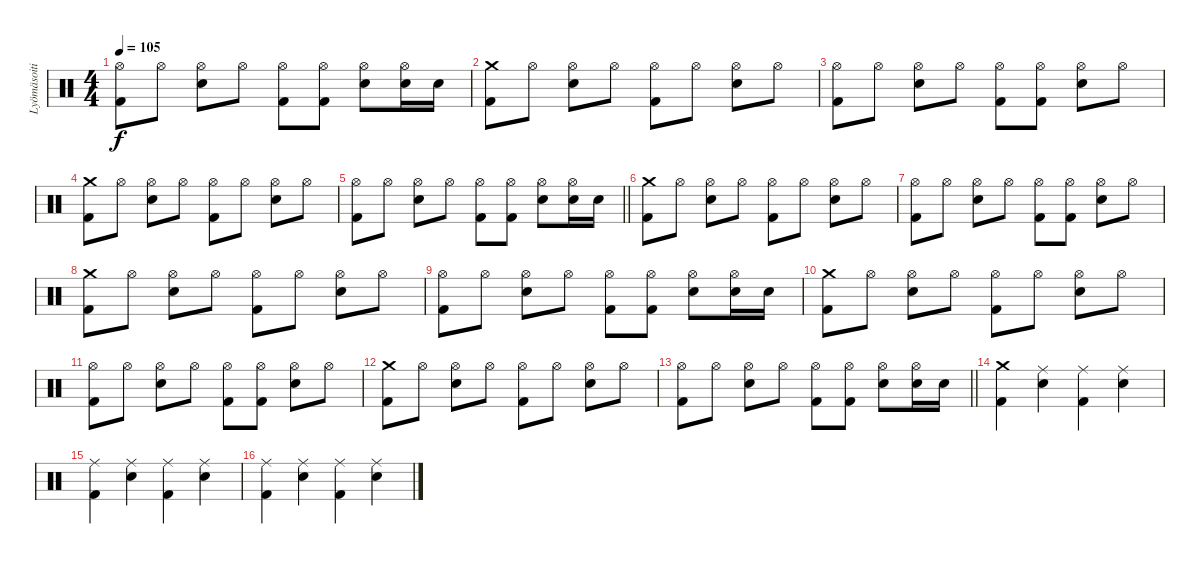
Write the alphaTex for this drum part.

\track ("Lyömäsoitin" "Lyömäsoiti") {instrument percussion}
\staff {score}
\articulation defaults
\ts (4 4)
\tempo 105
\clef neutral
\ks c
("Hi-Hat (open)" "Kick (hit) 2").8{dy f} "Hi-Hat (open)".8 ("Hi-Hat (open)" "Snare (hit) 2").8 "Hi-Hat (open)".8 ("Hi-Hat (open)" "Kick (hit) 2").8 ("Hi-Hat (open)" "Kick (hit) 2").8 ("Hi-Hat (open)" "Snare (hit) 2").8 ("Hi-Hat (open)" "Snare (hit) 2").16 "Snare (hit) 2".16 |
("Crash medium (hit)" "Kick (hit) 2").8 "Hi-Hat (open)".8 ("Hi-Hat (open)" "Snare (hit) 2").8 "Hi-Hat (open)".8 ("Hi-Hat (open)" "Kick (hit) 2").8 "Hi-Hat (open)".8 ("Hi-Hat (open)" "Snare (hit) 2").8 "Hi-Hat (open)".8 |
("Hi-Hat (open)" "Kick (hit) 2").8 "Hi-Hat (open)".8 ("Hi-Hat (open)" "Snare (hit) 2").8 "Hi-Hat (open)".8 ("Hi-Hat (open)" "Kick (hit) 2").8 ("Hi-Hat (open)" "Kick (hit) 2").8 ("Hi-Hat (open)" "Snare (hit) 2").8 "Hi-Hat (open)".8 |
("Crash medium (hit)" "Kick (hit) 2").8 "Hi-Hat (open)".8 ("Hi-Hat (open)" "Snare (hit) 2").8 "Hi-Hat (open)".8 ("Hi-Hat (open)" "Kick (hit) 2").8 "Hi-Hat (open)".8 ("Hi-Hat (open)" "Snare (hit) 2").8 "Hi-Hat (open)".8 |
\barLineRight lightlight
("Hi-Hat (open)" "Kick (hit) 2").8 "Hi-Hat (open)".8 ("Hi-Hat (open)" "Snare (hit) 2").8 "Hi-Hat (open)".8 ("Hi-Hat (open)" "Kick (hit) 2").8 ("Hi-Hat (open)" "Kick (hit) 2").8 ("Hi-Hat (open)" "Snare (hit) 2").8 ("Hi-Hat (open)" "Snare (hit) 2").16 "Snare (hit) 2".16 |
("Crash medium (hit)" "Kick (hit) 2").8 "Hi-Hat (open)".8 ("Hi-Hat (open)" "Snare (hit) 2").8 "Hi-Hat (open)".8 ("Hi-Hat (open)" "Kick (hit) 2").8 "Hi-Hat (open)".8 ("Hi-Hat (open)" "Snare (hit) 2").8 "Hi-Hat (open)".8 |
("Hi-Hat (open)" "Kick (hit) 2").8 "Hi-Hat (open)".8 ("Hi-Hat (open)" "Snare (hit) 2").8 "Hi-Hat (open)".8 ("Hi-Hat (open)" "Kick (hit) 2").8 ("Hi-Hat (open)" "Kick (hit) 2").8 ("Hi-Hat (open)" "Snare (hit) 2").8 "Hi-Hat (open)".8 |
("Crash medium (hit)" "Kick (hit) 2").8 "Hi-Hat (open)".8 ("Hi-Hat (open)" "Snare (hit) 2").8 "Hi-Hat (open)".8 ("Hi-Hat (open)" "Kick (hit) 2").8 "Hi-Hat (open)".8 ("Hi-Hat (open)" "Snare (hit) 2").8 "Hi-Hat (open)".8 |
("Hi-Hat (open)" "Kick (hit) 2").8 "Hi-Hat (open)".8 ("Hi-Hat (open)" "Snare (hit) 2").8 "Hi-Hat (open)".8 ("Hi-Hat (open)" "Kick (hit) 2").8 ("Hi-Hat (open)" "Kick (hit) 2").8 ("Hi-Hat (open)" "Snare (hit) 2").8 ("Hi-Hat (open)" "Snare (hit) 2").16 "Snare (hit) 2".16 |
("Crash medium (hit)" "Kick (hit) 2").8 "Hi-Hat (open)".8 ("Hi-Hat (open)" "Snare (hit) 2").8 "Hi-Hat (open)".8 ("Hi-Hat (open)" "Kick (hit) 2").8 "Hi-Hat (open)".8 ("Hi-Hat (open)" "Snare (hit) 2").8 "Hi-Hat (open)".8 |
("Hi-Hat (open)" "Kick (hit) 2").8 "Hi-Hat (open)".8 ("Hi-Hat (open)" "Snare (hit) 2").8 "Hi-Hat (open)".8 ("Hi-Hat (open)" "Kick (hit) 2").8 ("Hi-Hat (open)" "Kick (hit) 2").8 ("Hi-Hat (open)" "Snare (hit) 2").8 "Hi-Hat (open)".8 |
("Crash medium (hit)" "Kick (hit) 2").8 "Hi-Hat (open)".8 ("Hi-Hat (open)" "Snare (hit) 2").8 "Hi-Hat (open)".8 ("Hi-Hat (open)" "Kick (hit) 2").8 "Hi-Hat (open)".8 ("Hi-Hat (open)" "Snare (hit) 2").8 "Hi-Hat (open)".8 |
\barLineRight lightlight
("Hi-Hat (open)" "Kick (hit) 2").8 "Hi-Hat (open)".8 ("Hi-Hat (open)" "Snare (hit) 2").8 "Hi-Hat (open)".8 ("Hi-Hat (open)" "Kick (hit) 2").8 ("Hi-Hat (open)" "Kick (hit) 2").8 ("Hi-Hat (open)" "Snare (hit) 2").8 ("Hi-Hat (open)" "Snare (hit) 2").16 "Snare (hit) 2".16 |
("Crash medium (hit)" "Kick (hit) 2").4 ("Ride (middle)" "Snare (hit) 2").4 ("Ride (middle)" "Kick (hit) 2").4 ("Ride (middle)" "Snare (hit) 2").4 |
("Ride (middle)" "Kick (hit) 2").4 ("Ride (middle)" "Snare (hit) 2").4 ("Ride (middle)" "Kick (hit) 2").4 ("Ride (middle)" "Snare (hit) 2").4 |
("Ride (middle)" "Kick (hit) 2").4 ("Ride (middle)" "Snare (hit) 2").4 ("Ride (middle)" "Kick (hit) 2").4 ("Ride (middle)" "Snare (hit) 2").4
